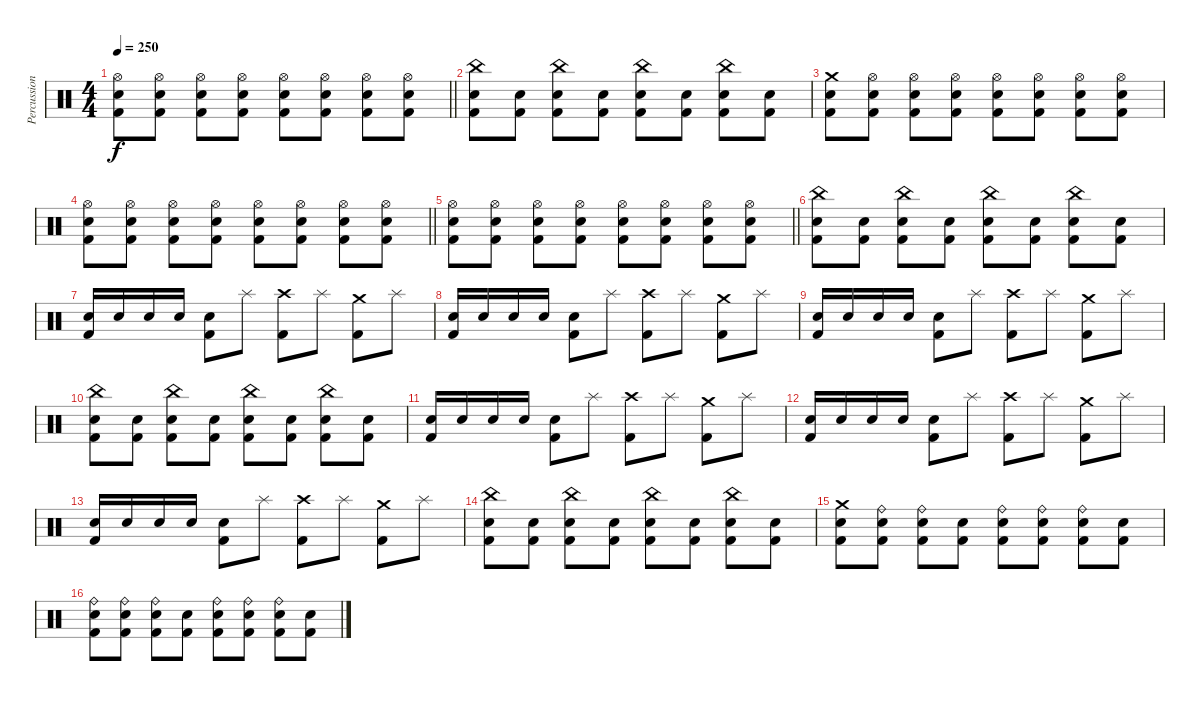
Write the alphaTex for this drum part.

\track ("Percussions" "Percussion") {instrument percussion}
\staff {score}
\articulation defaults
\ts (4 4)
\tempo 250
\clef neutral
\barLineRight lightlight
\ks c
("Hi-Hat (open)" "Electric Snare (hit)" "Kick (hit) 2").8{dy f} ("Hi-Hat (open)" "Electric Snare (hit)" "Kick (hit) 2").8 ("Hi-Hat (open)" "Electric Snare (hit)" "Kick (hit) 2").8 ("Hi-Hat (open)" "Electric Snare (hit)" "Kick (hit) 2").8 ("Hi-Hat (open)" "Electric Snare (hit)" "Kick (hit) 2").8 ("Hi-Hat (open)" "Electric Snare (hit)" "Kick (hit) 2").8 ("Hi-Hat (open)" "Electric Snare (hit)" "Kick (hit) 2").8 ("Hi-Hat (open)" "Electric Snare (hit)" "Kick (hit) 2").8 |
("China (hit)" "Electric Snare (hit)" "Kick (hit) 2").8 ("Electric Snare (hit)" "Kick (hit) 2").8 ("China (hit)" "Electric Snare (hit)" "Kick (hit) 2").8 ("Electric Snare (hit)" "Kick (hit) 2").8 ("China (hit)" "Electric Snare (hit)" "Kick (hit) 2").8 ("Electric Snare (hit)" "Kick (hit) 2").8 ("China (hit)" "Electric Snare (hit)" "Kick (hit) 2").8 ("Electric Snare (hit)" "Kick (hit) 2").8 |
("Crash medium (hit)" "Electric Snare (hit)" "Kick (hit) 2").8 ("Hi-Hat (open)" "Electric Snare (hit)" "Kick (hit) 2").8 ("Hi-Hat (open)" "Electric Snare (hit)" "Kick (hit) 2").8 ("Hi-Hat (open)" "Electric Snare (hit)" "Kick (hit) 2").8 ("Hi-Hat (open)" "Electric Snare (hit)" "Kick (hit) 2").8 ("Hi-Hat (open)" "Electric Snare (hit)" "Kick (hit) 2").8 ("Hi-Hat (open)" "Electric Snare (hit)" "Kick (hit) 2").8 ("Hi-Hat (open)" "Electric Snare (hit)" "Kick (hit) 2").8 |
\barLineRight lightlight
("Hi-Hat (open)" "Electric Snare (hit)" "Kick (hit) 2").8 ("Hi-Hat (open)" "Electric Snare (hit)" "Kick (hit) 2").8 ("Hi-Hat (open)" "Electric Snare (hit)" "Kick (hit) 2").8 ("Hi-Hat (open)" "Electric Snare (hit)" "Kick (hit) 2").8 ("Hi-Hat (open)" "Electric Snare (hit)" "Kick (hit) 2").8 ("Hi-Hat (open)" "Electric Snare (hit)" "Kick (hit) 2").8 ("Hi-Hat (open)" "Electric Snare (hit)" "Kick (hit) 2").8 ("Hi-Hat (open)" "Electric Snare (hit)" "Kick (hit) 2").8 |
\barLineRight lightlight
("Hi-Hat (open)" "Electric Snare (hit)" "Kick (hit) 2").8 ("Hi-Hat (open)" "Electric Snare (hit)" "Kick (hit) 2").8 ("Hi-Hat (open)" "Electric Snare (hit)" "Kick (hit) 2").8 ("Hi-Hat (open)" "Electric Snare (hit)" "Kick (hit) 2").8 ("Hi-Hat (open)" "Electric Snare (hit)" "Kick (hit) 2").8 ("Hi-Hat (open)" "Electric Snare (hit)" "Kick (hit) 2").8 ("Hi-Hat (open)" "Electric Snare (hit)" "Kick (hit) 2").8 ("Hi-Hat (open)" "Electric Snare (hit)" "Kick (hit) 2").8 |
("China (hit)" "Electric Snare (hit)" "Kick (hit) 2").8 ("Electric Snare (hit)" "Kick (hit) 2").8 ("China (hit)" "Electric Snare (hit)" "Kick (hit) 2").8 ("Electric Snare (hit)" "Kick (hit) 2").8 ("China (hit)" "Electric Snare (hit)" "Kick (hit) 2").8 ("Electric Snare (hit)" "Kick (hit) 2").8 ("China (hit)" "Electric Snare (hit)" "Kick (hit) 2").8 ("Electric Snare (hit)" "Kick (hit) 2").8 |
("Electric Snare (hit)" "Kick (hit) 2").16 "Electric Snare (hit)".16 "Electric Snare (hit)".16 "Electric Snare (hit)".16 ("Electric Snare (hit)" "Kick (hit) 2").8 "Splash (hit)".8 ("Crash high (hit)" "Kick (hit) 2").8 "Splash (hit)".8 ("Crash medium (hit)" "Kick (hit) 2").8 "Splash (hit)".8 |
("Electric Snare (hit)" "Kick (hit) 2").16 "Electric Snare (hit)".16 "Electric Snare (hit)".16 "Electric Snare (hit)".16 ("Electric Snare (hit)" "Kick (hit) 2").8 "Splash (hit)".8 ("Crash high (hit)" "Kick (hit) 2").8 "Splash (hit)".8 ("Crash medium (hit)" "Kick (hit) 2").8 "Splash (hit)".8 |
("Electric Snare (hit)" "Kick (hit) 2").16 "Electric Snare (hit)".16 "Electric Snare (hit)".16 "Electric Snare (hit)".16 ("Electric Snare (hit)" "Kick (hit) 2").8 "Splash (hit)".8 ("Crash high (hit)" "Kick (hit) 2").8 "Splash (hit)".8 ("Crash medium (hit)" "Kick (hit) 2").8 "Splash (hit)".8 |
("China (hit)" "Electric Snare (hit)" "Kick (hit) 2").8 ("Electric Snare (hit)" "Kick (hit) 2").8 ("China (hit)" "Electric Snare (hit)" "Kick (hit) 2").8 ("Electric Snare (hit)" "Kick (hit) 2").8 ("China (hit)" "Electric Snare (hit)" "Kick (hit) 2").8 ("Electric Snare (hit)" "Kick (hit) 2").8 ("China (hit)" "Electric Snare (hit)" "Kick (hit) 2").8 ("Electric Snare (hit)" "Kick (hit) 2").8 |
("Electric Snare (hit)" "Kick (hit) 2").16 "Electric Snare (hit)".16 "Electric Snare (hit)".16 "Electric Snare (hit)".16 ("Electric Snare (hit)" "Kick (hit) 2").8 "Splash (hit)".8 ("Crash high (hit)" "Kick (hit) 2").8 "Splash (hit)".8 ("Crash medium (hit)" "Kick (hit) 2").8 "Splash (hit)".8 |
("Electric Snare (hit)" "Kick (hit) 2").16 "Electric Snare (hit)".16 "Electric Snare (hit)".16 "Electric Snare (hit)".16 ("Electric Snare (hit)" "Kick (hit) 2").8 "Splash (hit)".8 ("Crash high (hit)" "Kick (hit) 2").8 "Splash (hit)".8 ("Crash medium (hit)" "Kick (hit) 2").8 "Splash (hit)".8 |
("Electric Snare (hit)" "Kick (hit) 2").16 "Electric Snare (hit)".16 "Electric Snare (hit)".16 "Electric Snare (hit)".16 ("Electric Snare (hit)" "Kick (hit) 2").8 "Splash (hit)".8 ("Crash high (hit)" "Kick (hit) 2").8 "Splash (hit)".8 ("Crash medium (hit)" "Kick (hit) 2").8 "Splash (hit)".8 |
("China (hit)" "Electric Snare (hit)" "Kick (hit) 2").8 ("Electric Snare (hit)" "Kick (hit) 2").8 ("China (hit)" "Electric Snare (hit)" "Kick (hit) 2").8 ("Electric Snare (hit)" "Kick (hit) 2").8 ("China (hit)" "Electric Snare (hit)" "Kick (hit) 2").8 ("Electric Snare (hit)" "Kick (hit) 2").8 ("China (hit)" "Electric Snare (hit)" "Kick (hit) 2").8 ("Electric Snare (hit)" "Kick (hit) 2").8 |
("Crash medium (hit)" "Electric Snare (hit)" "Kick (hit) 2").8 ("Ride (bell)" "Electric Snare (hit)" "Kick (hit) 2").8 ("Ride (bell)" "Electric Snare (hit)" "Kick (hit) 2").8 ("Electric Snare (hit)" "Kick (hit) 2").8 ("Ride (bell)" "Electric Snare (hit)" "Kick (hit) 2").8 ("Ride (bell)" "Electric Snare (hit)" "Kick (hit) 2").8 ("Ride (bell)" "Electric Snare (hit)" "Kick (hit) 2").8 ("Electric Snare (hit)" "Kick (hit) 2").8 |
("Ride (bell)" "Electric Snare (hit)" "Kick (hit) 2").8 ("Ride (bell)" "Electric Snare (hit)" "Kick (hit) 2").8 ("Ride (bell)" "Electric Snare (hit)" "Kick (hit) 2").8 ("Electric Snare (hit)" "Kick (hit) 2").8 ("Ride (bell)" "Electric Snare (hit)" "Kick (hit) 2").8 ("Ride (bell)" "Electric Snare (hit)" "Kick (hit) 2").8 ("Ride (bell)" "Electric Snare (hit)" "Kick (hit) 2").8 ("Electric Snare (hit)" "Kick (hit) 2").8
